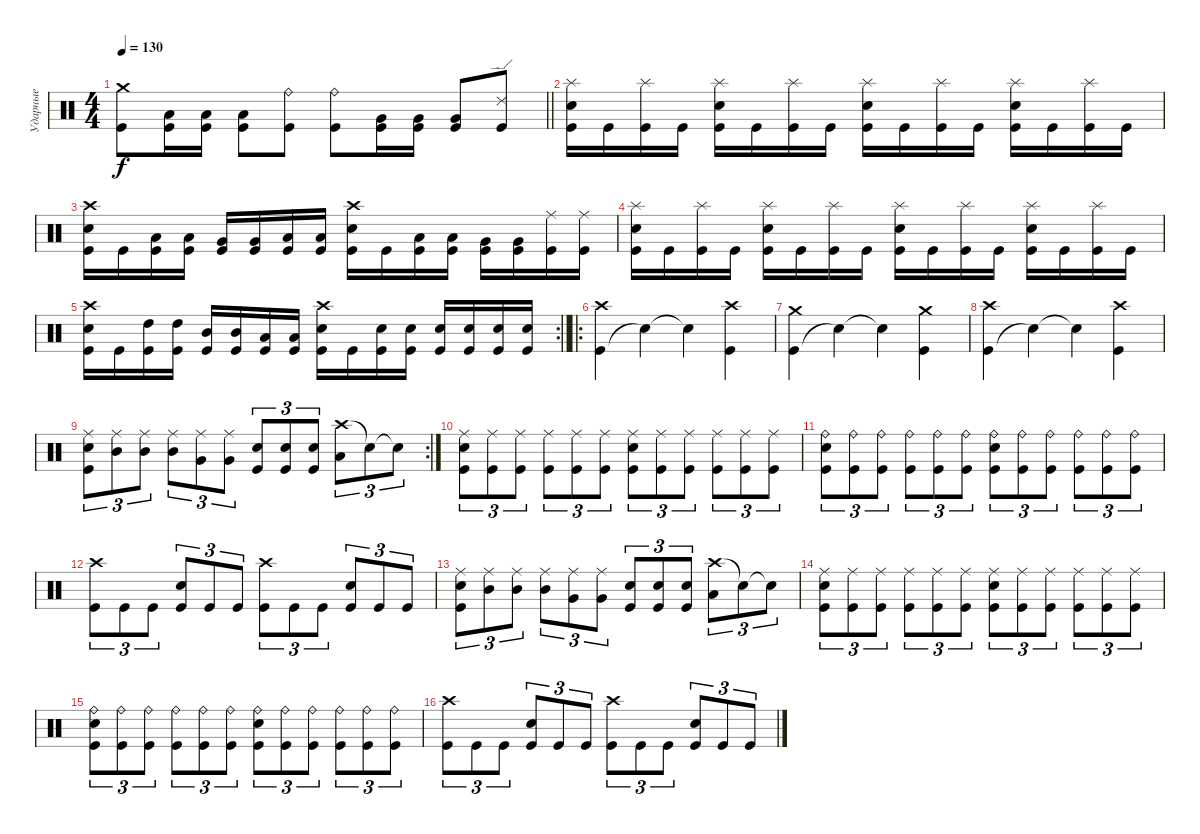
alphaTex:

\track ("Ударные" "Ударные") {instrument percussion}
\staff {score}
\articulation defaults
\ts (4 4)
\tempo 130
\clef neutral
\barLineRight lightlight
\ks c
("Crash medium (hit)" "Kick (hit)").8{dy f} ("Low Tom (hit)" "Kick (hit)").16 ("Low Tom (hit)" "Kick (hit)").16 ("Low Tom (hit)" "Kick (hit)").8 ("Ride (bell)" "Kick (hit)").8 ("Ride (bell)" "Kick (hit)").8 ("Very Low Tom (hit)" "Kick (hit)").16 ("Very Low Tom (hit)" "Kick (hit)").16 ("Very Low Tom (hit)" "Kick (hit)").8 ("Ride (edge) 2" "Kick (hit)").8 |
("Splash (hit)" "Electric Snare (hit)" "Kick (hit)").16 "Kick (hit)".16 ("Splash (hit)" "Kick (hit)").16 "Kick (hit)".16 ("Splash (hit)" "Electric Snare (hit)" "Kick (hit)").16 "Kick (hit)".16 ("Splash (hit)" "Kick (hit)").16 "Kick (hit)".16 ("Splash (hit)" "Electric Snare (hit)" "Kick (hit)").16 "Kick (hit)".16 ("Splash (hit)" "Kick (hit)").16 "Kick (hit)".16 ("Splash (hit)" "Electric Snare (hit)" "Kick (hit)").16 "Kick (hit)".16 ("Splash (hit)" "Kick (hit)").16 "Kick (hit)".16 |
("Crash high (hit)" "Electric Snare (hit)" "Kick (hit)").16 "Kick (hit)".16 ("Low Tom (hit)" "Kick (hit)").16 ("Low Tom (hit)" "Kick (hit)").16 ("Very Low Tom (hit)" "Kick (hit)").16 ("Very Low Tom (hit)" "Kick (hit)").16 ("Low Floor Tom (hit)" "Kick (hit)").16 ("Low Floor Tom (hit)" "Kick (hit)").16 ("Crash high (hit)" "Electric Snare (hit)" "Kick (hit)").16 "Kick (hit)".16 ("Low Tom (hit)" "Kick (hit)").16 ("Low Tom (hit)" "Kick (hit)").16 ("Very Low Tom (hit)" "Kick (hit)").16 ("Very Low Tom (hit)" "Kick (hit)").16 ("Ride (middle)" "Kick (hit)").16 ("Ride (middle)" "Kick (hit)").16 |
("Splash (hit)" "Electric Snare (hit)" "Kick (hit)").16 "Kick (hit)".16 ("Splash (hit)" "Kick (hit)").16 "Kick (hit)".16 ("Splash (hit)" "Electric Snare (hit)" "Kick (hit)").16 "Kick (hit)".16 ("Splash (hit)" "Kick (hit)").16 "Kick (hit)".16 ("Splash (hit)" "Electric Snare (hit)" "Kick (hit)").16 "Kick (hit)".16 ("Splash (hit)" "Kick (hit)").16 "Kick (hit)".16 ("Splash (hit)" "Electric Snare (hit)" "Kick (hit)").16 "Kick (hit)".16 ("Splash (hit)" "Kick (hit)").16 "Kick (hit)".16 |
\rc 2
\barLineRight lightlight
("Crash high (hit)" "Electric Snare (hit)" "Kick (hit)").16 "Kick (hit)".16 ("High Tom (hit)" "Kick (hit)").16 ("High Tom (hit)" "Kick (hit)").16 ("Mid Tom (hit)" "Kick (hit)").16 ("Mid Tom (hit)" "Kick (hit)").16 ("Low Tom (hit)" "Kick (hit)").16 ("Low Tom (hit)" "Kick (hit)").16 ("Crash high (hit)" "Electric Snare (hit)" "Kick (hit)").16 "Kick (hit)".16 ("Electric Snare (hit)" "Kick (hit)").16 ("Electric Snare (hit)" "Kick (hit)").16 ("Electric Snare (hit)" "Kick (hit)").16 ("Electric Snare (hit)" "Kick (hit)").16 ("Electric Snare (hit)" "Kick (hit)").16 ("Electric Snare (hit)" "Kick (hit)").16 |
\ro
("Kick (hit)" "Crash high (hit)").4 "Snare (hit)"{t}.4 "Snare (hit)"{t}.4 ("Kick (hit)" "Crash high (hit)").4 |
("Kick (hit)" "Crash medium (hit)").4 "Snare (hit)"{t}.4 "Snare (hit)"{t}.4 ("Kick (hit)" "Crash medium (hit)").4 |
("Kick (hit)" "Crash high (hit)").4 "Snare (hit)"{t}.4 "Snare (hit)"{t}.4 ("Kick (hit)" "Crash high (hit)").4 |
\rc 2
("Electric Snare (hit)" "Kick (hit)" "Ride (middle)").8{tu (3 2)} ("Mid Tom (hit)" "Ride (middle)").8{tu (3 2)} ("Mid Tom (hit)" "Ride (middle)").8{tu (3 2)} ("Mid Tom (hit)" "Ride (middle)").8{tu (3 2)} ("Very Low Tom (hit)" "Ride (middle)").8{tu (3 2)} ("Very Low Tom (hit)" "Ride (middle)").8{tu (3 2)} ("Electric Snare (hit)" "Kick (hit)").8{tu (3 2)} ("Electric Snare (hit)" "Kick (hit)").8{tu (3 2)} ("Electric Snare (hit)" "Kick (hit)").8{tu (3 2)} ("Crash high (hit)" "Low Floor Tom (hit)").8{tu (3 2)} "Snare (hit)"{t}.8{tu (3 2)} "Snare (hit)"{t}.8{tu (3 2)} |
("Electric Snare (hit)" "Kick (hit)" "Ride (middle)").8{tu (3 2)} ("Kick (hit)" "Ride (middle)").8{tu (3 2)} ("Kick (hit)" "Ride (middle)").8{tu (3 2)} ("Kick (hit)" "Ride (middle)").8{tu (3 2)} ("Kick (hit)" "Ride (middle)").8{tu (3 2)} ("Kick (hit)" "Ride (middle)").8{tu (3 2)} ("Electric Snare (hit)" "Kick (hit)" "Ride (middle)").8{tu (3 2)} ("Kick (hit)" "Ride (middle)").8{tu (3 2)} ("Kick (hit)" "Ride (middle)").8{tu (3 2)} ("Kick (hit)" "Ride (middle)").8{tu (3 2)} ("Kick (hit)" "Ride (middle)").8{tu (3 2)} ("Kick (hit)" "Ride (middle)").8{tu (3 2)} |
("Electric Snare (hit)" "Kick (hit)" "Ride (bell)").8{tu (3 2)} ("Kick (hit)" "Ride (bell)").8{tu (3 2)} ("Kick (hit)" "Ride (bell)").8{tu (3 2)} ("Kick (hit)" "Ride (bell)").8{tu (3 2)} ("Kick (hit)" "Ride (bell)").8{tu (3 2)} ("Kick (hit)" "Ride (bell)").8{tu (3 2)} ("Electric Snare (hit)" "Kick (hit)" "Ride (bell)").8{tu (3 2)} ("Kick (hit)" "Ride (bell)").8{tu (3 2)} ("Kick (hit)" "Ride (bell)").8{tu (3 2)} ("Kick (hit)" "Ride (bell)").8{tu (3 2)} ("Kick (hit)" "Ride (bell)").8{tu (3 2)} ("Kick (hit)" "Ride (bell)").8{tu (3 2)} |
("Kick (hit)" "Crash high (hit)").8{tu (3 2)} "Kick (hit)".8{tu (3 2)} "Kick (hit)".8{tu (3 2)} ("Kick (hit)" "Electric Snare (hit)").8{tu (3 2)} "Kick (hit)".8{tu (3 2)} "Kick (hit)".8{tu (3 2)} ("Kick (hit)" "Crash high (hit)").8{tu (3 2)} "Kick (hit)".8{tu (3 2)} "Kick (hit)".8{tu (3 2)} ("Kick (hit)" "Electric Snare (hit)").8{tu (3 2)} "Kick (hit)".8{tu (3 2)} "Kick (hit)".8{tu (3 2)} |
("Electric Snare (hit)" "Kick (hit)" "Ride (middle)").8{tu (3 2)} ("Mid Tom (hit)" "Ride (middle)").8{tu (3 2)} ("Mid Tom (hit)" "Ride (middle)").8{tu (3 2)} ("Mid Tom (hit)" "Ride (middle)").8{tu (3 2)} ("Very Low Tom (hit)" "Ride (middle)").8{tu (3 2)} ("Very Low Tom (hit)" "Ride (middle)").8{tu (3 2)} ("Electric Snare (hit)" "Kick (hit)").8{tu (3 2)} ("Electric Snare (hit)" "Kick (hit)").8{tu (3 2)} ("Electric Snare (hit)" "Kick (hit)").8{tu (3 2)} ("Crash high (hit)" "Low Floor Tom (hit)").8{tu (3 2)} "Snare (hit)"{t}.8{tu (3 2)} "Snare (hit)"{t}.8{tu (3 2)} |
("Electric Snare (hit)" "Kick (hit)" "Ride (middle)").8{tu (3 2)} ("Kick (hit)" "Ride (middle)").8{tu (3 2)} ("Kick (hit)" "Ride (middle)").8{tu (3 2)} ("Kick (hit)" "Ride (middle)").8{tu (3 2)} ("Kick (hit)" "Ride (middle)").8{tu (3 2)} ("Kick (hit)" "Ride (middle)").8{tu (3 2)} ("Electric Snare (hit)" "Kick (hit)" "Ride (middle)").8{tu (3 2)} ("Kick (hit)" "Ride (middle)").8{tu (3 2)} ("Kick (hit)" "Ride (middle)").8{tu (3 2)} ("Kick (hit)" "Ride (middle)").8{tu (3 2)} ("Kick (hit)" "Ride (middle)").8{tu (3 2)} ("Kick (hit)" "Ride (middle)").8{tu (3 2)} |
("Electric Snare (hit)" "Kick (hit)" "Ride (bell)").8{tu (3 2)} ("Kick (hit)" "Ride (bell)").8{tu (3 2)} ("Kick (hit)" "Ride (bell)").8{tu (3 2)} ("Kick (hit)" "Ride (bell)").8{tu (3 2)} ("Kick (hit)" "Ride (bell)").8{tu (3 2)} ("Kick (hit)" "Ride (bell)").8{tu (3 2)} ("Electric Snare (hit)" "Kick (hit)" "Ride (bell)").8{tu (3 2)} ("Kick (hit)" "Ride (bell)").8{tu (3 2)} ("Kick (hit)" "Ride (bell)").8{tu (3 2)} ("Kick (hit)" "Ride (bell)").8{tu (3 2)} ("Kick (hit)" "Ride (bell)").8{tu (3 2)} ("Kick (hit)" "Ride (bell)").8{tu (3 2)} |
("Kick (hit)" "Crash high (hit)").8{tu (3 2)} "Kick (hit)".8{tu (3 2)} "Kick (hit)".8{tu (3 2)} ("Kick (hit)" "Electric Snare (hit)").8{tu (3 2)} "Kick (hit)".8{tu (3 2)} "Kick (hit)".8{tu (3 2)} ("Kick (hit)" "Crash high (hit)").8{tu (3 2)} "Kick (hit)".8{tu (3 2)} "Kick (hit)".8{tu (3 2)} ("Kick (hit)" "Electric Snare (hit)").8{tu (3 2)} "Kick (hit)".8{tu (3 2)} "Kick (hit)".8{tu (3 2)}
